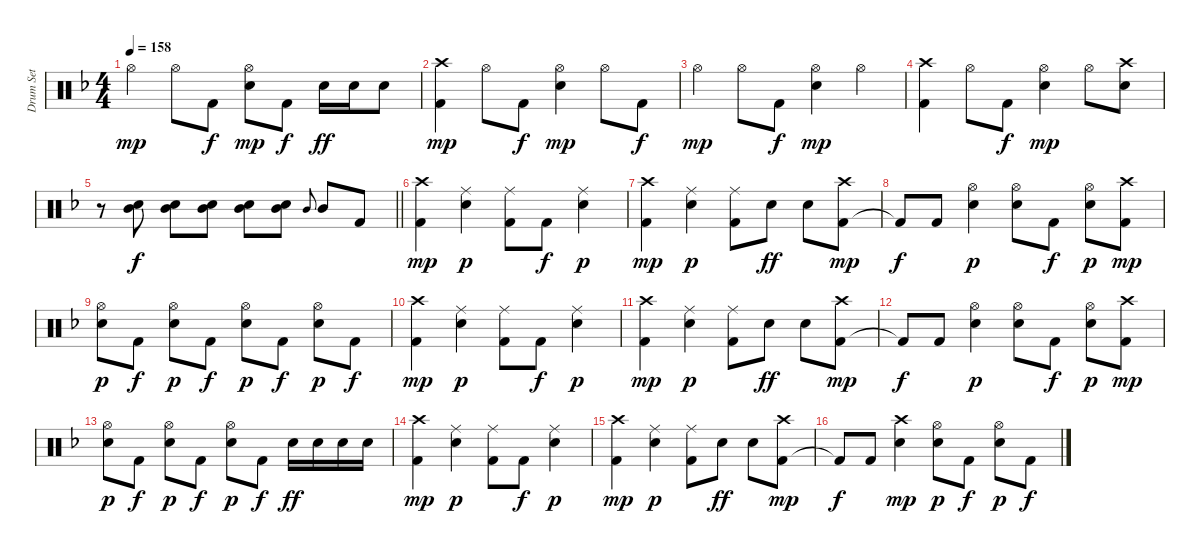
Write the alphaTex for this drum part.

\track ("Drum Set" "Drum Set") {instrument percussion}
\staff {score}
\articulation defaults
\ts (4 4)
\tempo 158
\clef neutral
\ks f "Hi-Hat (open)".4{dy mp} "Hi-Hat (open)".8 "Kick (hit) 2".8{dy f}
("Hi-Hat (open)" "Electric Snare (hit)").8{dy mp} "Kick (hit) 2".8{dy f} "Electric Snare (hit)".16{dy ff} "Electric Snare (hit)".16 "Electric Snare (hit)".8 |
("Crash high (hit)" "Kick (hit) 2").4{dy mp} "Hi-Hat (open)".8 "Kick (hit) 2".8{dy f} ("Hi-Hat (open)" "Electric Snare (hit)").4{dy mp} "Hi-Hat (open)".8 "Kick (hit) 2".8{dy f} |
"Hi-Hat (open)".4{dy mp} "Hi-Hat (open)".8 "Kick (hit) 2".8{dy f} ("Hi-Hat (open)" "Electric Snare (hit)").4{dy mp} "Hi-Hat (open)".4 |
("Crash high (hit)" "Kick (hit) 2").4 "Hi-Hat (open)".8 "Kick (hit) 2".8{dy f} ("Hi-Hat (open)" "Electric Snare (hit)").4{dy mp} "Hi-Hat (open)".8 ("Electric Snare (hit)" "Crash high (hit)").8 |
\barLineRight lightlight
r.8 ("Electric Snare (hit)" "Mid Tom (hit)").8{dy f} ("Electric Snare (hit)" "Mid Tom (hit)").8 ("Electric Snare (hit)" "Mid Tom (hit)").8 ("Electric Snare (hit)" "Mid Tom (hit)").8 ("Electric Snare (hit)" "Mid Tom (hit)").8 "Mid Tom (hit)".8{gr onbeat} "Mid Tom (hit)".8 "Kick (hit) 2".8 |
("Kick (hit) 2" "Crash high (hit)").4{dy mp} ("Electric Snare (hit)" "Ride (middle)").4{dy p} ("Kick (hit) 2" "Ride (middle)").8 "Kick (hit) 2".8{dy f} ("Electric Snare (hit)" "Ride (middle)").4{dy p} |
("Kick (hit) 2" "Crash high (hit)").4{dy mp} ("Electric Snare (hit)" "Ride (middle)").4{dy p} ("Kick (hit) 2" "Ride (middle)").8 "Electric Snare (hit)".8{dy ff} "Electric Snare (hit)".8 ("Kick (hit) 2" "Crash high (hit)").8{dy mp} |
"Kick (hit) 2"{t}.8{dy f} "Kick (hit) 2".8 ("Electric Snare (hit)" "Hi-Hat (open)").4{dy p} ("Electric Snare (hit)" "Hi-Hat (open)").8 "Kick (hit) 2".8{dy f} ("Electric Snare (hit)" "Hi-Hat (open)").8{dy p} ("Kick (hit) 2" "Crash high (hit)").8{dy mp} |
("Electric Snare (hit)" "Hi-Hat (open)").8{dy p} "Kick (hit) 2".8{dy f} ("Electric Snare (hit)" "Hi-Hat (open)").8{dy p} "Kick (hit) 2".8{dy f} ("Electric Snare (hit)" "Hi-Hat (open)").8{dy p} "Kick (hit) 2".8{dy f} ("Electric Snare (hit)" "Hi-Hat (open)").8{dy p} "Kick (hit) 2".8{dy f} |
("Kick (hit) 2" "Crash high (hit)").4{dy mp} ("Electric Snare (hit)" "Ride (middle)").4{dy p} ("Kick (hit) 2" "Ride (middle)").8 "Kick (hit) 2".8{dy f} ("Electric Snare (hit)" "Ride (middle)").4{dy p} |
("Kick (hit) 2" "Crash high (hit)").4{dy mp} ("Electric Snare (hit)" "Ride (middle)").4{dy p} ("Kick (hit) 2" "Ride (middle)").8 "Electric Snare (hit)".8{dy ff} "Electric Snare (hit)".8 ("Kick (hit) 2" "Crash high (hit)").8{dy mp} |
"Kick (hit) 2"{t}.8{dy f} "Kick (hit) 2".8 ("Electric Snare (hit)" "Hi-Hat (open)").4{dy p} ("Electric Snare (hit)" "Hi-Hat (open)").8 "Kick (hit) 2".8{dy f} ("Electric Snare (hit)" "Hi-Hat (open)").8{dy p} ("Kick (hit) 2" "Crash high (hit)").8{dy mp} |
("Electric Snare (hit)" "Hi-Hat (open)").8{dy p} "Kick (hit) 2".8{dy f} ("Electric Snare (hit)" "Hi-Hat (open)").8{dy p} "Kick (hit) 2".8{dy f} ("Electric Snare (hit)" "Hi-Hat (open)").8{dy p} "Kick (hit) 2".8{dy f} "Electric Snare (hit)".16{dy ff} "Electric Snare (hit)".16 "Electric Snare (hit)".16 "Electric Snare (hit)".16 |
("Kick (hit) 2" "Crash high (hit)").4{dy mp} ("Electric Snare (hit)" "Ride (middle)").4{dy p} ("Kick (hit) 2" "Ride (middle)").8 "Kick (hit) 2".8{dy f} ("Electric Snare (hit)" "Ride (middle)").4{dy p} |
("Kick (hit) 2" "Crash high (hit)").4{dy mp} ("Electric Snare (hit)" "Ride (middle)").4{dy p} ("Kick (hit) 2" "Ride (middle)").8 "Electric Snare (hit)".8{dy ff} "Electric Snare (hit)".8 ("Kick (hit) 2" "Crash high (hit)").8{dy mp} |
"Kick (hit) 2"{t}.8{dy f} "Kick (hit) 2".8 ("Electric Snare (hit)" "Crash high (hit)").4{dy mp} ("Electric Snare (hit)" "Hi-Hat (open)").8{dy p} "Kick (hit) 2".8{dy f} ("Electric Snare (hit)" "Hi-Hat (open)").8{dy p} "Kick (hit) 2".8{dy f}
